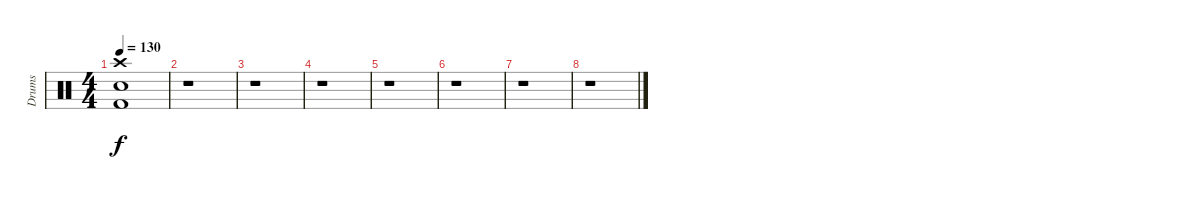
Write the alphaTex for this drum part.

\track ("Drums" "Drums") {instrument percussion}
\staff {score}
\articulation defaults
\ts (4 4)
\tempo 130
\clef neutral
\ks c
("Kick (hit) 2" "Snare (hit) 2" "Crash high (hit)").1{dy f} |
r.1 |
r.1 |
r.1 |
r.1 |
r.1 |
r.1 |
r.1
